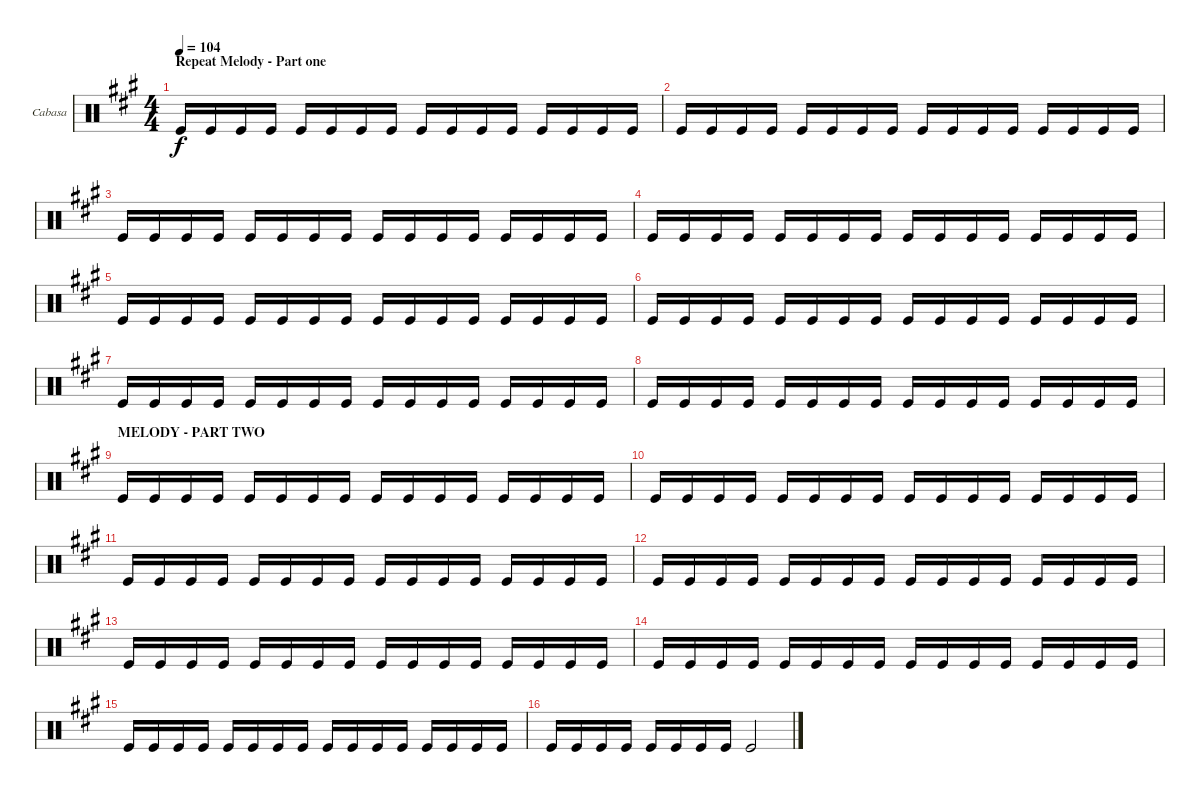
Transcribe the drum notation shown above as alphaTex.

\bracketExtendMode groupsimilarinstruments
\firstSystemTrackNameOrientation horizontal
\otherSystemsTrackNameOrientation horizontal
\track ("Cabasa" "Cabasa") {instrument percussion}
\staff {score}
\articulation defaults
\ts (4 4)
\section ("" "Repeat Melody - Part one")
\tempo 104
\clef neutral
\ks a "Kick (hit)".16{dy f} "Kick (hit)".16 "Kick (hit)".16 "Kick (hit)".16 "Kick (hit)".16 "Kick (hit)".16 "Kick (hit)".16 "Kick (hit)".16 "Kick (hit)".16 "Kick (hit)".16 "Kick (hit)".16 "Kick (hit)".16 "Kick (hit)".16 "Kick (hit)".16 "Kick (hit)".16 "Kick (hit)".16
|
"Kick (hit)".16 "Kick (hit)".16 "Kick (hit)".16 "Kick (hit)".16 "Kick (hit)".16 "Kick (hit)".16 "Kick (hit)".16 "Kick (hit)".16 "Kick (hit)".16 "Kick (hit)".16 "Kick (hit)".16 "Kick (hit)".16 "Kick (hit)".16 "Kick (hit)".16 "Kick (hit)".16 "Kick (hit)".16 |
"Kick (hit)".16 "Kick (hit)".16 "Kick (hit)".16 "Kick (hit)".16 "Kick (hit)".16 "Kick (hit)".16 "Kick (hit)".16 "Kick (hit)".16 "Kick (hit)".16 "Kick (hit)".16 "Kick (hit)".16 "Kick (hit)".16 "Kick (hit)".16 "Kick (hit)".16 "Kick (hit)".16 "Kick (hit)".16 |
"Kick (hit)".16 "Kick (hit)".16 "Kick (hit)".16 "Kick (hit)".16 "Kick (hit)".16 "Kick (hit)".16 "Kick (hit)".16 "Kick (hit)".16 "Kick (hit)".16 "Kick (hit)".16 "Kick (hit)".16 "Kick (hit)".16 "Kick (hit)".16 "Kick (hit)".16 "Kick (hit)".16 "Kick (hit)".16 |
"Kick (hit)".16 "Kick (hit)".16 "Kick (hit)".16 "Kick (hit)".16 "Kick (hit)".16 "Kick (hit)".16 "Kick (hit)".16 "Kick (hit)".16 "Kick (hit)".16 "Kick (hit)".16 "Kick (hit)".16 "Kick (hit)".16 "Kick (hit)".16 "Kick (hit)".16 "Kick (hit)".16 "Kick (hit)".16 |
"Kick (hit)".16 "Kick (hit)".16 "Kick (hit)".16 "Kick (hit)".16 "Kick (hit)".16 "Kick (hit)".16 "Kick (hit)".16 "Kick (hit)".16 "Kick (hit)".16 "Kick (hit)".16 "Kick (hit)".16 "Kick (hit)".16 "Kick (hit)".16 "Kick (hit)".16 "Kick (hit)".16 "Kick (hit)".16 |
"Kick (hit)".16 "Kick (hit)".16 "Kick (hit)".16 "Kick (hit)".16 "Kick (hit)".16 "Kick (hit)".16 "Kick (hit)".16 "Kick (hit)".16 "Kick (hit)".16 "Kick (hit)".16 "Kick (hit)".16 "Kick (hit)".16 "Kick (hit)".16 "Kick (hit)".16 "Kick (hit)".16 "Kick (hit)".16 |
"Kick (hit)".16 "Kick (hit)".16 "Kick (hit)".16 "Kick (hit)".16 "Kick (hit)".16 "Kick (hit)".16 "Kick (hit)".16 "Kick (hit)".16 "Kick (hit)".16 "Kick (hit)".16 "Kick (hit)".16 "Kick (hit)".16 "Kick (hit)".16 "Kick (hit)".16 "Kick (hit)".16 "Kick (hit)".16 |
\section ("" "MELODY - PART TWO")
"Kick (hit)".16 "Kick (hit)".16 "Kick (hit)".16 "Kick (hit)".16 "Kick (hit)".16 "Kick (hit)".16 "Kick (hit)".16 "Kick (hit)".16 "Kick (hit)".16 "Kick (hit)".16 "Kick (hit)".16 "Kick (hit)".16 "Kick (hit)".16 "Kick (hit)".16 "Kick (hit)".16 "Kick (hit)".16 |
"Kick (hit)".16 "Kick (hit)".16 "Kick (hit)".16 "Kick (hit)".16 "Kick (hit)".16 "Kick (hit)".16 "Kick (hit)".16 "Kick (hit)".16 "Kick (hit)".16 "Kick (hit)".16 "Kick (hit)".16 "Kick (hit)".16 "Kick (hit)".16 "Kick (hit)".16 "Kick (hit)".16 "Kick (hit)".16 |
"Kick (hit)".16 "Kick (hit)".16 "Kick (hit)".16 "Kick (hit)".16 "Kick (hit)".16 "Kick (hit)".16 "Kick (hit)".16 "Kick (hit)".16 "Kick (hit)".16 "Kick (hit)".16 "Kick (hit)".16 "Kick (hit)".16 "Kick (hit)".16 "Kick (hit)".16 "Kick (hit)".16 "Kick (hit)".16 |
"Kick (hit)".16 "Kick (hit)".16 "Kick (hit)".16 "Kick (hit)".16 "Kick (hit)".16 "Kick (hit)".16 "Kick (hit)".16 "Kick (hit)".16 "Kick (hit)".16 "Kick (hit)".16 "Kick (hit)".16 "Kick (hit)".16 "Kick (hit)".16 "Kick (hit)".16 "Kick (hit)".16 "Kick (hit)".16 |
"Kick (hit)".16 "Kick (hit)".16 "Kick (hit)".16 "Kick (hit)".16 "Kick (hit)".16 "Kick (hit)".16 "Kick (hit)".16 "Kick (hit)".16 "Kick (hit)".16 "Kick (hit)".16 "Kick (hit)".16 "Kick (hit)".16 "Kick (hit)".16 "Kick (hit)".16 "Kick (hit)".16 "Kick (hit)".16 |
"Kick (hit)".16 "Kick (hit)".16 "Kick (hit)".16 "Kick (hit)".16 "Kick (hit)".16 "Kick (hit)".16 "Kick (hit)".16 "Kick (hit)".16 "Kick (hit)".16 "Kick (hit)".16 "Kick (hit)".16 "Kick (hit)".16 "Kick (hit)".16 "Kick (hit)".16 "Kick (hit)".16 "Kick (hit)".16 |
"Kick (hit)".16 "Kick (hit)".16 "Kick (hit)".16 "Kick (hit)".16 "Kick (hit)".16 "Kick (hit)".16 "Kick (hit)".16 "Kick (hit)".16 "Kick (hit)".16 "Kick (hit)".16 "Kick (hit)".16 "Kick (hit)".16 "Kick (hit)".16 "Kick (hit)".16 "Kick (hit)".16 "Kick (hit)".16 |
"Kick (hit)".16 "Kick (hit)".16 "Kick (hit)".16 "Kick (hit)".16 "Kick (hit)".16 "Kick (hit)".16 "Kick (hit)".16 "Kick (hit)".16 "Kick (hit)".2
